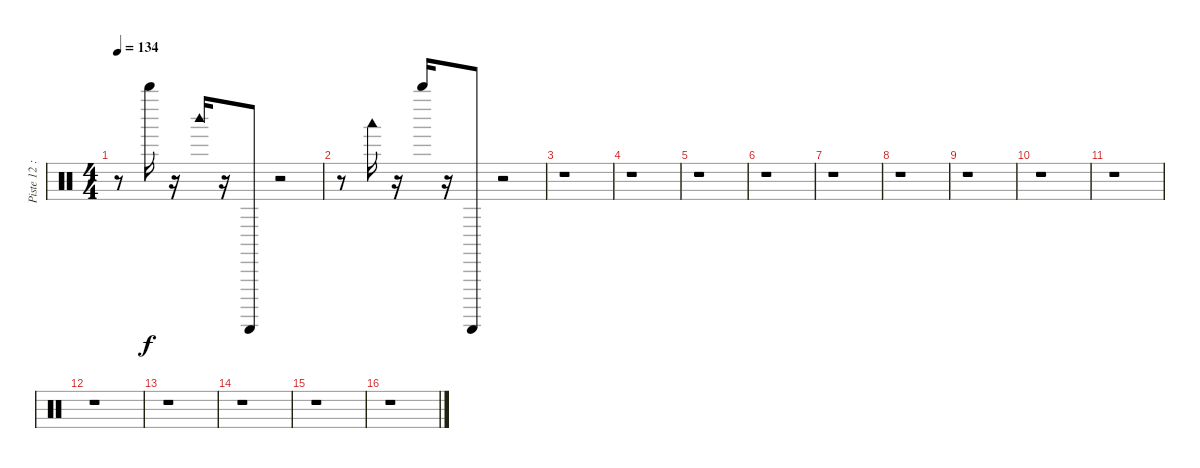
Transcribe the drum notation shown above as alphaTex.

\track ("Piste 12 : non précisé" "Piste 12 :") {instrument percussion}
\staff {score}
\articulation defaults
\ts (4 4)
\tempo 134
\clef neutral
\ks c
r.8{dy f} "Whistle high (hit)".16 r.16 "Woodblock high (hit)".16 r.16 "Guiro (scrap-return)".8 r.2 |
r.8 "Woodblock low (hit)".16 r.16 "Whistle high (hit)".16 r.16 "Guiro (scrap-return)".8 r.2 |
r.1 |
r.1 |
r.1 |
r.1 |
r.1 |
r.1 |
r.1 |
r.1 |
r.1 |
r.1 |
r.1 |
r.1 |
r.1 |
r.1
